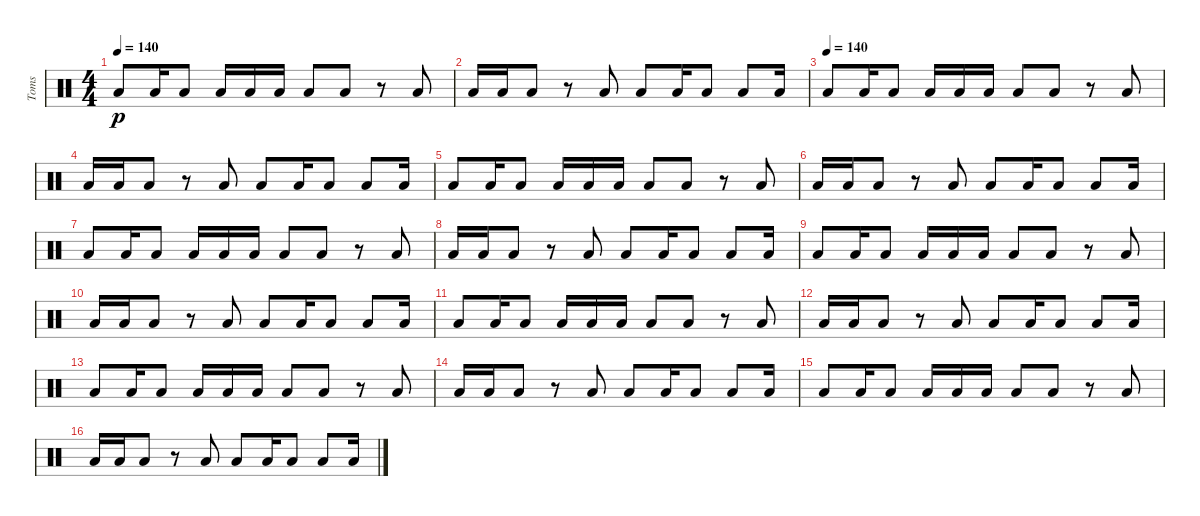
\track ("Toms" "Toms") {instrument percussion}
\staff {score}
\articulation defaults
\ts (4 4)
\tempo 140
\clef neutral
\ks c "Low Floor Tom (hit)".8{dy p} "Low Tom (hit)".16 "Low Floor Tom (hit)".8 "Low Tom (hit)".16 "Low Floor Tom (hit)".16 "Low Floor Tom (hit)".16 "Low Floor Tom (hit)".8 "Low Tom (hit)".8
r.8 "Low Tom (hit)".8 |
"Low Floor Tom (hit)".16 "Low Floor Tom (hit)".16 "Low Tom (hit)".8 r.8 "Low Tom (hit)".8 "Low Floor Tom (hit)".8 "Low Tom (hit)".16 "Low Floor Tom (hit)".8 "Low Tom (hit)".8 "Low Floor Tom (hit)".16 |
\tempo (140)
"Low Floor Tom (hit)".8 "Low Tom (hit)".16 "Low Floor Tom (hit)".8 "Low Tom (hit)".16 "Low Floor Tom (hit)".16 "Low Floor Tom (hit)".16 "Low Floor Tom (hit)".8 "Low Tom (hit)".8 r.8 "Low Tom (hit)".8 |
"Low Floor Tom (hit)".16 "Low Floor Tom (hit)".16 "Low Tom (hit)".8 r.8 "Low Tom (hit)".8 "Low Floor Tom (hit)".8 "Low Tom (hit)".16 "Low Floor Tom (hit)".8 "Low Tom (hit)".8 "Low Floor Tom (hit)".16 |
"Low Floor Tom (hit)".8 "Low Tom (hit)".16 "Low Floor Tom (hit)".8 "Low Tom (hit)".16 "Low Floor Tom (hit)".16 "Low Floor Tom (hit)".16 "Low Floor Tom (hit)".8 "Low Tom (hit)".8 r.8 "Low Tom (hit)".8 |
"Low Floor Tom (hit)".16 "Low Floor Tom (hit)".16 "Low Tom (hit)".8 r.8 "Low Tom (hit)".8 "Low Floor Tom (hit)".8 "Low Tom (hit)".16 "Low Floor Tom (hit)".8 "Low Tom (hit)".8 "Low Floor Tom (hit)".16 |
"Low Floor Tom (hit)".8 "Low Tom (hit)".16 "Low Floor Tom (hit)".8 "Low Tom (hit)".16 "Low Floor Tom (hit)".16 "Low Floor Tom (hit)".16 "Low Floor Tom (hit)".8 "Low Tom (hit)".8 r.8 "Low Tom (hit)".8 |
"Low Floor Tom (hit)".16 "Low Floor Tom (hit)".16 "Low Tom (hit)".8 r.8 "Low Tom (hit)".8 "Low Floor Tom (hit)".8 "Low Tom (hit)".16 "Low Floor Tom (hit)".8 "Low Tom (hit)".8 "Low Floor Tom (hit)".16 |
"Low Floor Tom (hit)".8 "Low Tom (hit)".16 "Low Floor Tom (hit)".8 "Low Tom (hit)".16 "Low Floor Tom (hit)".16 "Low Floor Tom (hit)".16 "Low Floor Tom (hit)".8 "Low Tom (hit)".8 r.8 "Low Tom (hit)".8 |
"Low Floor Tom (hit)".16 "Low Floor Tom (hit)".16 "Low Tom (hit)".8 r.8 "Low Tom (hit)".8 "Low Floor Tom (hit)".8 "Low Tom (hit)".16 "Low Floor Tom (hit)".8 "Low Tom (hit)".8 "Low Floor Tom (hit)".16 |
"Low Floor Tom (hit)".8 "Low Tom (hit)".16 "Low Floor Tom (hit)".8 "Low Tom (hit)".16 "Low Floor Tom (hit)".16 "Low Floor Tom (hit)".16 "Low Floor Tom (hit)".8 "Low Tom (hit)".8 r.8 "Low Tom (hit)".8 |
"Low Floor Tom (hit)".16 "Low Floor Tom (hit)".16 "Low Tom (hit)".8 r.8 "Low Tom (hit)".8 "Low Floor Tom (hit)".8 "Low Tom (hit)".16 "Low Floor Tom (hit)".8 "Low Tom (hit)".8 "Low Floor Tom (hit)".16 |
"Low Floor Tom (hit)".8 "Low Tom (hit)".16 "Low Floor Tom (hit)".8 "Low Tom (hit)".16 "Low Floor Tom (hit)".16 "Low Floor Tom (hit)".16 "Low Floor Tom (hit)".8 "Low Tom (hit)".8 r.8 "Low Tom (hit)".8 |
"Low Floor Tom (hit)".16 "Low Floor Tom (hit)".16 "Low Tom (hit)".8 r.8 "Low Tom (hit)".8 "Low Floor Tom (hit)".8 "Low Tom (hit)".16 "Low Floor Tom (hit)".8 "Low Tom (hit)".8 "Low Floor Tom (hit)".16 |
"Low Floor Tom (hit)".8 "Low Tom (hit)".16 "Low Floor Tom (hit)".8 "Low Tom (hit)".16 "Low Floor Tom (hit)".16 "Low Floor Tom (hit)".16 "Low Floor Tom (hit)".8 "Low Tom (hit)".8 r.8 "Low Tom (hit)".8 |
"Low Floor Tom (hit)".16 "Low Floor Tom (hit)".16 "Low Tom (hit)".8 r.8 "Low Tom (hit)".8 "Low Floor Tom (hit)".8 "Low Tom (hit)".16 "Low Floor Tom (hit)".8 "Low Tom (hit)".8 "Low Floor Tom (hit)".16
